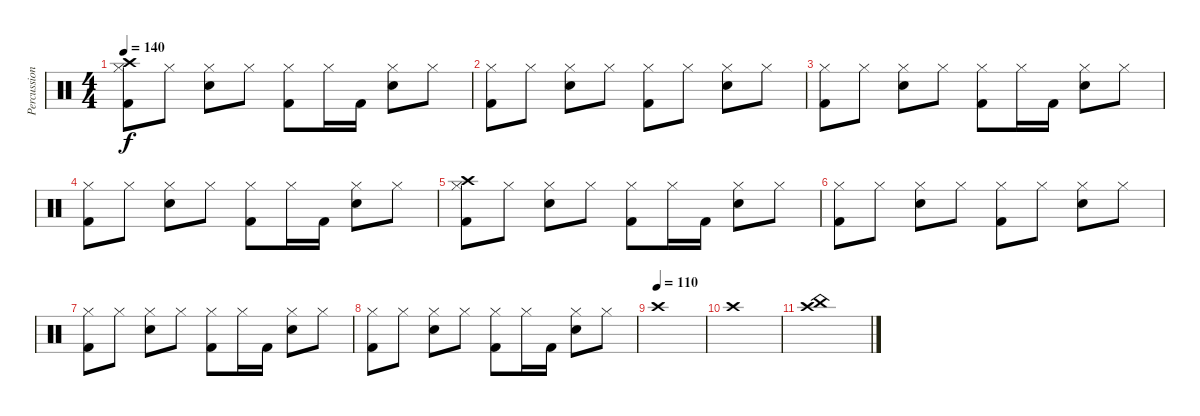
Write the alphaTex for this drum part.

\track ("Percussion" "Percussion") {instrument percussion}
\staff {score}
\articulation defaults
\ts (4 4)
\tempo 140
\clef neutral
\ks c
("Crash high (hit)" "Hi-Hat (closed)" "Kick (hit) 2").8{dy f} "Hi-Hat (closed)".8 ("Hi-Hat (closed)" "Electric Snare (hit)").8 "Hi-Hat (closed)".8 ("Hi-Hat (closed)" "Kick (hit) 2").8 "Hi-Hat (closed)".16 "Kick (hit) 2".16 ("Hi-Hat (closed)" "Electric Snare (hit)").8 "Hi-Hat (closed)".8 |
("Hi-Hat (closed)" "Kick (hit) 2").8 "Hi-Hat (closed)".8 ("Hi-Hat (closed)" "Electric Snare (hit)").8 "Hi-Hat (closed)".8 ("Hi-Hat (closed)" "Kick (hit) 2").8 "Hi-Hat (closed)".8 ("Hi-Hat (closed)" "Electric Snare (hit)").8 "Hi-Hat (closed)".8 |
("Hi-Hat (closed)" "Kick (hit) 2").8 "Hi-Hat (closed)".8 ("Hi-Hat (closed)" "Electric Snare (hit)").8 "Hi-Hat (closed)".8 ("Hi-Hat (closed)" "Kick (hit) 2").8 "Hi-Hat (closed)".16 "Kick (hit) 2".16 ("Hi-Hat (closed)" "Electric Snare (hit)").8 "Hi-Hat (closed)".8 |
("Hi-Hat (closed)" "Kick (hit) 2").8 "Hi-Hat (closed)".8 ("Hi-Hat (closed)" "Electric Snare (hit)").8 "Hi-Hat (closed)".8 ("Hi-Hat (closed)" "Kick (hit) 2").8 "Hi-Hat (closed)".16 "Kick (hit) 2".16 ("Hi-Hat (closed)" "Electric Snare (hit)").8 "Hi-Hat (closed)".8 |
("Crash high (hit)" "Hi-Hat (closed)" "Kick (hit) 2").8 "Hi-Hat (closed)".8 ("Hi-Hat (closed)" "Electric Snare (hit)").8 "Hi-Hat (closed)".8 ("Hi-Hat (closed)" "Kick (hit) 2").8 "Hi-Hat (closed)".16 "Kick (hit) 2".16 ("Hi-Hat (closed)" "Electric Snare (hit)").8 "Hi-Hat (closed)".8 |
("Hi-Hat (closed)" "Kick (hit) 2").8 "Hi-Hat (closed)".8 ("Hi-Hat (closed)" "Electric Snare (hit)").8 "Hi-Hat (closed)".8 ("Hi-Hat (closed)" "Kick (hit) 2").8 "Hi-Hat (closed)".8 ("Hi-Hat (closed)" "Electric Snare (hit)").8 "Hi-Hat (closed)".8 |
("Hi-Hat (closed)" "Kick (hit) 2").8 "Hi-Hat (closed)".8 ("Hi-Hat (closed)" "Electric Snare (hit)").8 "Hi-Hat (closed)".8 ("Hi-Hat (closed)" "Kick (hit) 2").8 "Hi-Hat (closed)".16 "Kick (hit) 2".16 ("Hi-Hat (closed)" "Electric Snare (hit)").8 "Hi-Hat (closed)".8 |
("Hi-Hat (closed)" "Kick (hit) 2").8 "Hi-Hat (closed)".8 ("Hi-Hat (closed)" "Electric Snare (hit)").8 "Hi-Hat (closed)".8 ("Hi-Hat (closed)" "Kick (hit) 2").8 "Hi-Hat (closed)".16 "Kick (hit) 2".16 ("Hi-Hat (closed)" "Electric Snare (hit)").8 "Hi-Hat (closed)".8 |
\tempo (110)
"Crash high (hit)".1 |
"Crash high (hit)".1 |
("China (hit)" "Crash high (hit)").1
